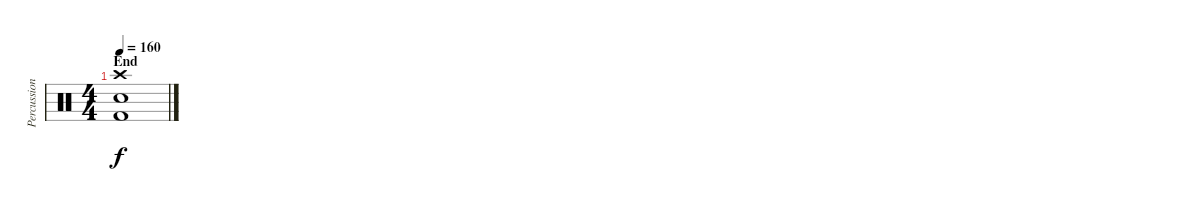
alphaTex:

\track ("Percussion" "Percussion") {instrument percussion}
\staff {score}
\articulation defaults
\ts (4 4)
\section ("" "End")
\tempo 160
\clef neutral
\ks c
("Crash high (hit)" "Electric Snare (hit)" "Kick (hit) 2").1{dy f}
